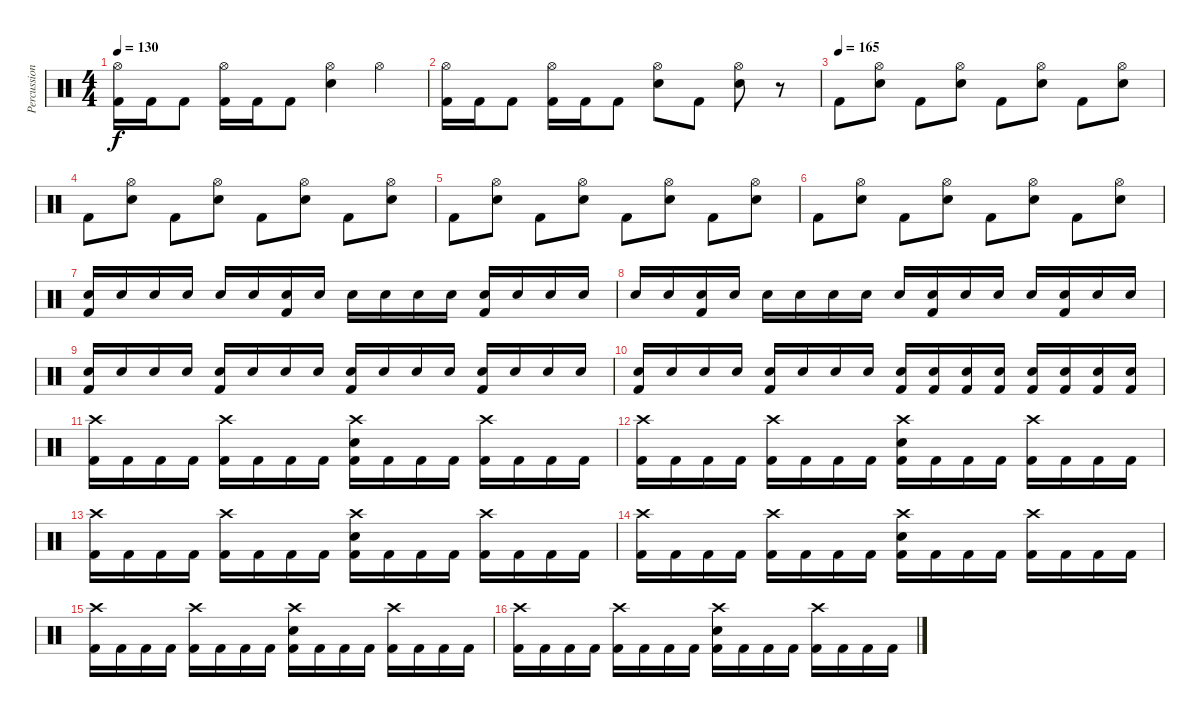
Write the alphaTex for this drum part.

\track ("Percussion" "Percussion") {instrument percussion}
\staff {score}
\articulation defaults
\ts (4 4)
\tempo 130
\clef neutral
\ks c
("Hi-Hat (open)" "Kick (hit) 2").16{dy f} "Kick (hit) 2".16 "Kick (hit) 2".8 ("Hi-Hat (open)" "Kick (hit) 2").16 "Kick (hit) 2".16 "Kick (hit) 2".8 ("Hi-Hat (open)" "Snare (hit) 2").4 "Hi-Hat (open)".4 |
("Hi-Hat (open)" "Kick (hit) 2").16 "Kick (hit) 2".16 "Kick (hit) 2".8 ("Hi-Hat (open)" "Kick (hit) 2").16 "Kick (hit) 2".16 "Kick (hit) 2".8 ("Hi-Hat (open)" "Snare (hit) 2").8 "Kick (hit) 2".8 ("Hi-Hat (open)" "Snare (hit) 2").8 r.8 |
\tempo (165)
"Kick (hit) 2".8 ("Hi-Hat (open)" "Snare (hit) 2").8 "Kick (hit) 2".8 ("Hi-Hat (open)" "Snare (hit) 2").8 "Kick (hit) 2".8 ("Hi-Hat (open)" "Snare (hit) 2").8 "Kick (hit) 2".8 ("Hi-Hat (open)" "Snare (hit) 2").8 |
"Kick (hit) 2".8 ("Hi-Hat (open)" "Snare (hit) 2").8 "Kick (hit) 2".8 ("Hi-Hat (open)" "Snare (hit) 2").8 "Kick (hit) 2".8 ("Hi-Hat (open)" "Snare (hit) 2").8 "Kick (hit) 2".8 ("Hi-Hat (open)" "Snare (hit) 2").8 |
"Kick (hit) 2".8 ("Hi-Hat (open)" "Snare (hit) 2").8 "Kick (hit) 2".8 ("Hi-Hat (open)" "Snare (hit) 2").8 "Kick (hit) 2".8 ("Hi-Hat (open)" "Snare (hit) 2").8 "Kick (hit) 2".8 ("Hi-Hat (open)" "Snare (hit) 2").8 |
"Kick (hit) 2".8 ("Hi-Hat (open)" "Snare (hit) 2").8 "Kick (hit) 2".8 ("Hi-Hat (open)" "Snare (hit) 2").8 "Kick (hit) 2".8 ("Hi-Hat (open)" "Snare (hit) 2").8 "Kick (hit) 2".8 ("Hi-Hat (open)" "Snare (hit) 2").8 |
("Snare (hit) 2" "Kick (hit) 2").16 "Snare (hit) 2".16 "Snare (hit) 2".16 "Snare (hit) 2".16 "Snare (hit) 2".16 "Snare (hit) 2".16 ("Snare (hit) 2" "Kick (hit) 2").16 "Snare (hit) 2".16 "Snare (hit) 2".16 "Snare (hit) 2".16 "Snare (hit) 2".16 "Snare (hit) 2".16 ("Snare (hit) 2" "Kick (hit) 2").16 "Snare (hit) 2".16 "Snare (hit) 2".16 "Snare (hit) 2".16 |
"Snare (hit) 2".16 "Snare (hit) 2".16 ("Snare (hit) 2" "Kick (hit) 2").16 "Snare (hit) 2".16 "Snare (hit) 2".16 "Snare (hit) 2".16 "Snare (hit) 2".16 "Snare (hit) 2".16 "Snare (hit) 2".16 ("Snare (hit) 2" "Kick (hit) 2").16 "Snare (hit) 2".16 "Snare (hit) 2".16 "Snare (hit) 2".16 ("Snare (hit) 2" "Kick (hit) 2").16 "Snare (hit) 2".16 "Snare (hit) 2".16 |
("Snare (hit) 2" "Kick (hit) 2").16 "Snare (hit) 2".16 "Snare (hit) 2".16 "Snare (hit) 2".16 ("Snare (hit) 2" "Kick (hit) 2").16 "Snare (hit) 2".16 "Snare (hit) 2".16 "Snare (hit) 2".16 ("Snare (hit) 2" "Kick (hit) 2").16 "Snare (hit) 2".16 "Snare (hit) 2".16 "Snare (hit) 2".16 ("Snare (hit) 2" "Kick (hit) 2").16 "Snare (hit) 2".16 "Snare (hit) 2".16 "Snare (hit) 2".16 |
("Snare (hit) 2" "Kick (hit) 2").16 "Snare (hit) 2".16 "Snare (hit) 2".16 "Snare (hit) 2".16 ("Snare (hit) 2" "Kick (hit) 2").16 "Snare (hit) 2".16 "Snare (hit) 2".16 "Snare (hit) 2".16 ("Snare (hit) 2" "Kick (hit) 2").16 ("Snare (hit) 2" "Kick (hit) 2").16 ("Snare (hit) 2" "Kick (hit) 2").16 ("Snare (hit) 2" "Kick (hit) 2").16 ("Snare (hit) 2" "Kick (hit) 2").16 ("Snare (hit) 2" "Kick (hit) 2").16 ("Snare (hit) 2" "Kick (hit) 2").16 ("Snare (hit) 2" "Kick (hit) 2").16 |
("Crash high (hit)" "Kick (hit) 2").16 "Kick (hit) 2".16 "Kick (hit) 2".16 "Kick (hit) 2".16 ("Crash high (hit)" "Kick (hit) 2").16 "Kick (hit) 2".16 "Kick (hit) 2".16 "Kick (hit) 2".16 ("Crash high (hit)" "Snare (hit) 2" "Kick (hit) 2").16 "Kick (hit) 2".16 "Kick (hit) 2".16 "Kick (hit) 2".16 ("Crash high (hit)" "Kick (hit) 2").16 "Kick (hit) 2".16 "Kick (hit) 2".16 "Kick (hit) 2".16 |
("Crash high (hit)" "Kick (hit) 2").16 "Kick (hit) 2".16 "Kick (hit) 2".16 "Kick (hit) 2".16 ("Crash high (hit)" "Kick (hit) 2").16 "Kick (hit) 2".16 "Kick (hit) 2".16 "Kick (hit) 2".16 ("Crash high (hit)" "Snare (hit) 2" "Kick (hit) 2").16 "Kick (hit) 2".16 "Kick (hit) 2".16 "Kick (hit) 2".16 ("Crash high (hit)" "Kick (hit) 2").16 "Kick (hit) 2".16 "Kick (hit) 2".16 "Kick (hit) 2".16 |
("Crash high (hit)" "Kick (hit) 2").16 "Kick (hit) 2".16 "Kick (hit) 2".16 "Kick (hit) 2".16 ("Crash high (hit)" "Kick (hit) 2").16 "Kick (hit) 2".16 "Kick (hit) 2".16 "Kick (hit) 2".16 ("Crash high (hit)" "Snare (hit) 2" "Kick (hit) 2").16 "Kick (hit) 2".16 "Kick (hit) 2".16 "Kick (hit) 2".16 ("Crash high (hit)" "Kick (hit) 2").16 "Kick (hit) 2".16 "Kick (hit) 2".16 "Kick (hit) 2".16 |
("Crash high (hit)" "Kick (hit) 2").16 "Kick (hit) 2".16 "Kick (hit) 2".16 "Kick (hit) 2".16 ("Crash high (hit)" "Kick (hit) 2").16 "Kick (hit) 2".16 "Kick (hit) 2".16 "Kick (hit) 2".16 ("Crash high (hit)" "Snare (hit) 2" "Kick (hit) 2").16 "Kick (hit) 2".16 "Kick (hit) 2".16 "Kick (hit) 2".16 ("Crash high (hit)" "Kick (hit) 2").16 "Kick (hit) 2".16 "Kick (hit) 2".16 "Kick (hit) 2".16 |
("Crash high (hit)" "Kick (hit) 2").16 "Kick (hit) 2".16 "Kick (hit) 2".16 "Kick (hit) 2".16 ("Crash high (hit)" "Kick (hit) 2").16 "Kick (hit) 2".16 "Kick (hit) 2".16 "Kick (hit) 2".16 ("Crash high (hit)" "Snare (hit) 2" "Kick (hit) 2").16 "Kick (hit) 2".16 "Kick (hit) 2".16 "Kick (hit) 2".16 ("Crash high (hit)" "Kick (hit) 2").16 "Kick (hit) 2".16 "Kick (hit) 2".16 "Kick (hit) 2".16 |
("Crash high (hit)" "Kick (hit) 2").16 "Kick (hit) 2".16 "Kick (hit) 2".16 "Kick (hit) 2".16 ("Crash high (hit)" "Kick (hit) 2").16 "Kick (hit) 2".16 "Kick (hit) 2".16 "Kick (hit) 2".16 ("Crash high (hit)" "Snare (hit) 2" "Kick (hit) 2").16 "Kick (hit) 2".16 "Kick (hit) 2".16 "Kick (hit) 2".16 ("Crash high (hit)" "Kick (hit) 2").16 "Kick (hit) 2".16 "Kick (hit) 2".16 "Kick (hit) 2".16
